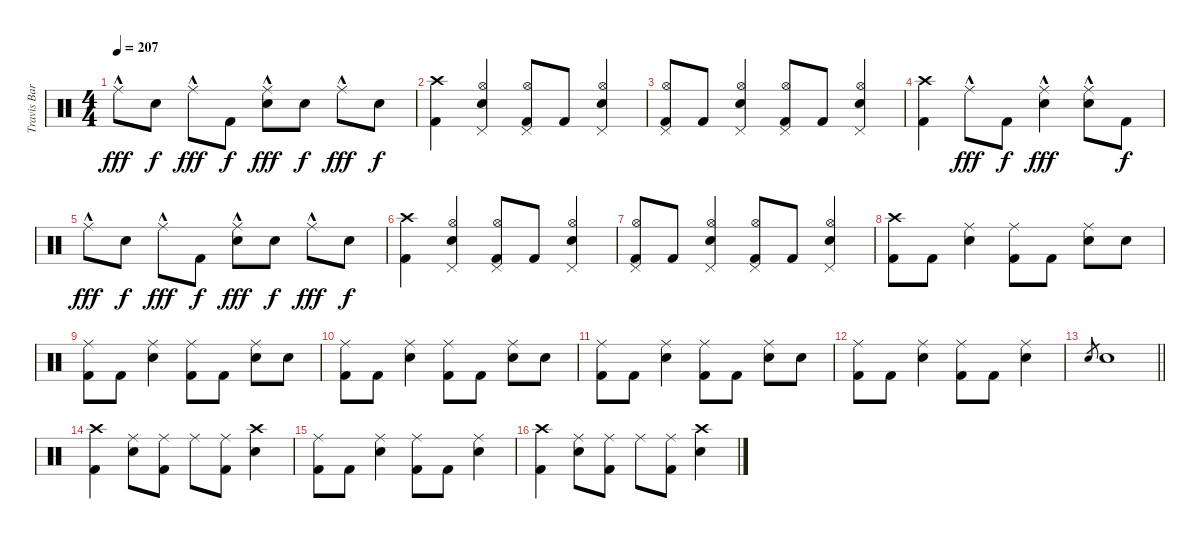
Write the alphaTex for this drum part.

\track ("Travis Barker" "Travis Bar") {instrument percussion}
\staff {score}
\articulation defaults
\ts (4 4)
\tempo 207
\clef neutral
\ks c "Ride (middle)"{hac}.8{dy fff} "Electric Snare (hit)".8{dy f} "Ride (middle)"{hac}.8{dy fff} "Kick (hit) 2".8{dy f}
("Ride (middle)"{hac} "Electric Snare (hit)").8{dy fff} "Electric Snare (hit)".8{dy f} "Ride (middle)"{hac}.8{dy fff} "Electric Snare (hit)".8{dy f} |
("Crash high (hit)" "Kick (hit) 2").4 ("Hi-Hat (open)" "Pedal Hi-Hat (hit)" "Electric Snare (hit)").4 ("Hi-Hat (open)" "Pedal Hi-Hat (hit)" "Kick (hit) 2").8 "Kick (hit) 2".8 ("Hi-Hat (open)" "Pedal Hi-Hat (hit)" "Electric Snare (hit)").4 |
("Hi-Hat (open)" "Pedal Hi-Hat (hit)" "Kick (hit) 2").8 "Kick (hit) 2".8 ("Hi-Hat (open)" "Pedal Hi-Hat (hit)" "Electric Snare (hit)").4 ("Hi-Hat (open)" "Pedal Hi-Hat (hit)" "Kick (hit) 2").8 "Kick (hit) 2".8 ("Hi-Hat (open)" "Pedal Hi-Hat (hit)" "Electric Snare (hit)").4 |
("Crash high (hit)" "Kick (hit) 2").4 "Ride (middle)"{hac}.8{dy fff} "Kick (hit) 2".8{dy f} ("Ride (middle)"{hac} "Electric Snare (hit)").4{dy fff} ("Ride (middle)"{hac} "Electric Snare (hit)").8 "Kick (hit) 2".8{dy f} |
"Ride (middle)"{hac}.8{dy fff} "Electric Snare (hit)".8{dy f} "Ride (middle)"{hac}.8{dy fff} "Kick (hit) 2".8{dy f} ("Ride (middle)"{hac} "Electric Snare (hit)").8{dy fff} "Electric Snare (hit)".8{dy f} "Ride (middle)"{hac}.8{dy fff} "Electric Snare (hit)".8{dy f} |
("Crash high (hit)" "Kick (hit) 2").4 ("Hi-Hat (open)" "Pedal Hi-Hat (hit)" "Electric Snare (hit)").4 ("Hi-Hat (open)" "Pedal Hi-Hat (hit)" "Kick (hit) 2").8 "Kick (hit) 2".8 ("Hi-Hat (open)" "Pedal Hi-Hat (hit)" "Electric Snare (hit)").4 |
("Hi-Hat (open)" "Pedal Hi-Hat (hit)" "Kick (hit) 2").8 "Kick (hit) 2".8 ("Hi-Hat (open)" "Pedal Hi-Hat (hit)" "Electric Snare (hit)").4 ("Hi-Hat (open)" "Pedal Hi-Hat (hit)" "Kick (hit) 2").8 "Kick (hit) 2".8 ("Hi-Hat (open)" "Pedal Hi-Hat (hit)" "Electric Snare (hit)").4 |
("Crash high (hit)" "Kick (hit) 2").8 "Kick (hit) 2".8 ("Ride (middle)" "Electric Snare (hit)").4 ("Ride (middle)" "Kick (hit) 2").8 "Kick (hit) 2".8 ("Ride (middle)" "Electric Snare (hit)").8 "Electric Snare (hit)".8 |
("Ride (middle)" "Kick (hit) 2").8 "Kick (hit) 2".8 ("Ride (middle)" "Electric Snare (hit)").4 ("Ride (middle)" "Kick (hit) 2").8 "Kick (hit) 2".8 ("Ride (middle)" "Electric Snare (hit)").8 "Electric Snare (hit)".8 |
("Ride (middle)" "Kick (hit) 2").8 "Kick (hit) 2".8 ("Ride (middle)" "Electric Snare (hit)").4 ("Ride (middle)" "Kick (hit) 2").8 "Kick (hit) 2".8 ("Ride (middle)" "Electric Snare (hit)").8 "Electric Snare (hit)".8 |
("Ride (middle)" "Kick (hit) 2").8 "Kick (hit) 2".8 ("Ride (middle)" "Electric Snare (hit)").4 ("Ride (middle)" "Kick (hit) 2").8 "Kick (hit) 2".8 ("Ride (middle)" "Electric Snare (hit)").8 "Electric Snare (hit)".8 |
("Ride (middle)" "Kick (hit) 2").8 "Kick (hit) 2".8 ("Ride (middle)" "Electric Snare (hit)").4 ("Ride (middle)" "Kick (hit) 2").8 "Kick (hit) 2".8 ("Ride (middle)" "Electric Snare (hit)").4 |
\barLineRight lightlight "Electric Snare (hit)".8{gr} "Electric Snare (hit)".1
|
("Crash high (hit)" "Kick (hit) 2").4 ("Electric Snare (hit)" "Ride (middle)").8 ("Kick (hit) 2" "Ride (middle)").8 "Ride (middle)".8 ("Kick (hit) 2" "Ride (middle)").8 ("Electric Snare (hit)" "Crash high (hit)").4 |
("Ride (middle)" "Kick (hit) 2").8 "Kick (hit) 2".8 ("Ride (middle)" "Electric Snare (hit)").4 ("Ride (middle)" "Kick (hit) 2").8 "Kick (hit) 2".8 ("Ride (middle)" "Electric Snare (hit)").4 |
("Crash high (hit)" "Kick (hit) 2").4 ("Electric Snare (hit)" "Ride (middle)").8 ("Kick (hit) 2" "Ride (middle)").8 "Ride (middle)".8 ("Kick (hit) 2" "Ride (middle)").8 ("Electric Snare (hit)" "Crash high (hit)").4
